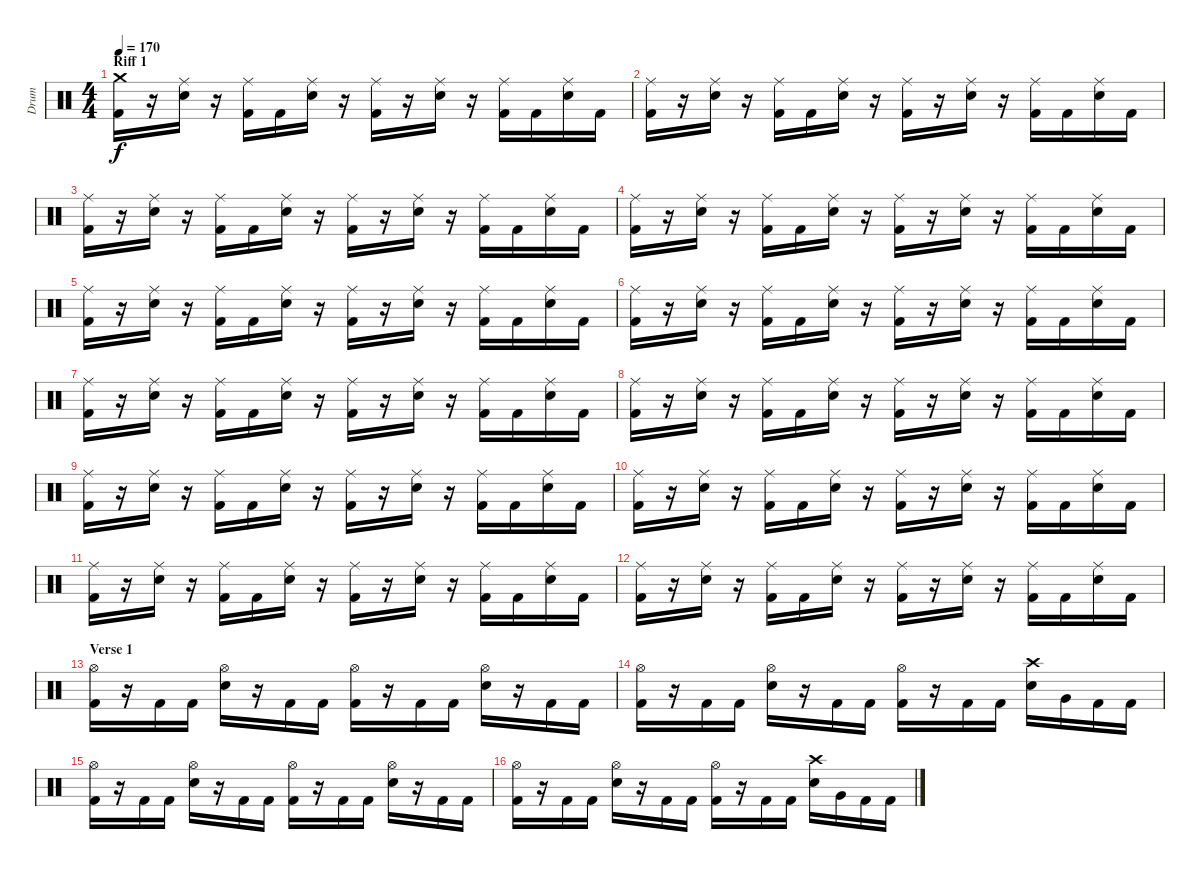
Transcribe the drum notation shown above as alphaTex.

\track ("Drum" "Drum") {instrument percussion}
\staff {score}
\articulation defaults
\ts (4 4)
\section ("" "Riff 1")
\tempo 170
\clef neutral
\ks c
("Kick (hit) 2" "Crash medium (hit)").16{dy f} r.16 ("Electric Snare (hit)" "Ride (middle)").16 r.16 ("Kick (hit) 2" "Ride (middle)").16 "Kick (hit) 2".16 ("Electric Snare (hit)" "Ride (middle)").16 r.16 ("Kick (hit) 2" "Ride (middle)").16 r.16 ("Electric Snare (hit)" "Ride (middle)").16 r.16 ("Kick (hit) 2" "Ride (middle)").16 "Kick (hit) 2".16 ("Electric Snare (hit)" "Ride (middle)").16 "Kick (hit) 2".16 |
("Kick (hit) 2" "Ride (middle)").16 r.16 ("Electric Snare (hit)" "Ride (middle)").16 r.16 ("Kick (hit) 2" "Ride (middle)").16 "Kick (hit) 2".16 ("Electric Snare (hit)" "Ride (middle)").16 r.16 ("Kick (hit) 2" "Ride (middle)").16 r.16 ("Electric Snare (hit)" "Ride (middle)").16 r.16 ("Kick (hit) 2" "Ride (middle)").16 "Kick (hit) 2".16 ("Electric Snare (hit)" "Ride (middle)").16 "Kick (hit) 2".16 |
("Kick (hit) 2" "Ride (middle)").16 r.16 ("Electric Snare (hit)" "Ride (middle)").16 r.16 ("Kick (hit) 2" "Ride (middle)").16 "Kick (hit) 2".16 ("Electric Snare (hit)" "Ride (middle)").16 r.16 ("Kick (hit) 2" "Ride (middle)").16 r.16 ("Electric Snare (hit)" "Ride (middle)").16 r.16 ("Kick (hit) 2" "Ride (middle)").16 "Kick (hit) 2".16 ("Electric Snare (hit)" "Ride (middle)").16 "Kick (hit) 2".16 |
("Kick (hit) 2" "Ride (middle)").16 r.16 ("Electric Snare (hit)" "Ride (middle)").16 r.16 ("Kick (hit) 2" "Ride (middle)").16 "Kick (hit) 2".16 ("Electric Snare (hit)" "Ride (middle)").16 r.16 ("Kick (hit) 2" "Ride (middle)").16 r.16 ("Electric Snare (hit)" "Ride (middle)").16 r.16 ("Kick (hit) 2" "Ride (middle)").16 "Kick (hit) 2".16 ("Electric Snare (hit)" "Ride (middle)").16 "Kick (hit) 2".16 |
("Kick (hit) 2" "Ride (middle)").16 r.16 ("Electric Snare (hit)" "Ride (middle)").16 r.16 ("Kick (hit) 2" "Ride (middle)").16 "Kick (hit) 2".16 ("Electric Snare (hit)" "Ride (middle)").16 r.16 ("Kick (hit) 2" "Ride (middle)").16 r.16 ("Electric Snare (hit)" "Ride (middle)").16 r.16 ("Kick (hit) 2" "Ride (middle)").16 "Kick (hit) 2".16 ("Electric Snare (hit)" "Ride (middle)").16 "Kick (hit) 2".16 |
("Kick (hit) 2" "Ride (middle)").16 r.16 ("Electric Snare (hit)" "Ride (middle)").16 r.16 ("Kick (hit) 2" "Ride (middle)").16 "Kick (hit) 2".16 ("Electric Snare (hit)" "Ride (middle)").16 r.16 ("Kick (hit) 2" "Ride (middle)").16 r.16 ("Electric Snare (hit)" "Ride (middle)").16 r.16 ("Kick (hit) 2" "Ride (middle)").16 "Kick (hit) 2".16 ("Electric Snare (hit)" "Ride (middle)").16 "Kick (hit) 2".16 |
("Kick (hit) 2" "Ride (middle)").16 r.16 ("Electric Snare (hit)" "Ride (middle)").16 r.16 ("Kick (hit) 2" "Ride (middle)").16 "Kick (hit) 2".16 ("Electric Snare (hit)" "Ride (middle)").16 r.16 ("Kick (hit) 2" "Ride (middle)").16 r.16 ("Electric Snare (hit)" "Ride (middle)").16 r.16 ("Kick (hit) 2" "Ride (middle)").16 "Kick (hit) 2".16 ("Electric Snare (hit)" "Ride (middle)").16 "Kick (hit) 2".16 |
("Kick (hit) 2" "Ride (middle)").16 r.16 ("Electric Snare (hit)" "Ride (middle)").16 r.16 ("Kick (hit) 2" "Ride (middle)").16 "Kick (hit) 2".16 ("Electric Snare (hit)" "Ride (middle)").16 r.16 ("Kick (hit) 2" "Ride (middle)").16 r.16 ("Electric Snare (hit)" "Ride (middle)").16 r.16 ("Kick (hit) 2" "Ride (middle)").16 "Kick (hit) 2".16 ("Electric Snare (hit)" "Ride (middle)").16 "Kick (hit) 2".16 |
("Kick (hit) 2" "Ride (middle)").16 r.16 ("Electric Snare (hit)" "Ride (middle)").16 r.16 ("Kick (hit) 2" "Ride (middle)").16 "Kick (hit) 2".16 ("Electric Snare (hit)" "Ride (middle)").16 r.16 ("Kick (hit) 2" "Ride (middle)").16 r.16 ("Electric Snare (hit)" "Ride (middle)").16 r.16 ("Kick (hit) 2" "Ride (middle)").16 "Kick (hit) 2".16 ("Electric Snare (hit)" "Ride (middle)").16 "Kick (hit) 2".16 |
("Kick (hit) 2" "Ride (middle)").16 r.16 ("Electric Snare (hit)" "Ride (middle)").16 r.16 ("Kick (hit) 2" "Ride (middle)").16 "Kick (hit) 2".16 ("Electric Snare (hit)" "Ride (middle)").16 r.16 ("Kick (hit) 2" "Ride (middle)").16 r.16 ("Electric Snare (hit)" "Ride (middle)").16 r.16 ("Kick (hit) 2" "Ride (middle)").16 "Kick (hit) 2".16 ("Electric Snare (hit)" "Ride (middle)").16 "Kick (hit) 2".16 |
("Kick (hit) 2" "Ride (middle)").16 r.16 ("Electric Snare (hit)" "Ride (middle)").16 r.16 ("Kick (hit) 2" "Ride (middle)").16 "Kick (hit) 2".16 ("Electric Snare (hit)" "Ride (middle)").16 r.16 ("Kick (hit) 2" "Ride (middle)").16 r.16 ("Electric Snare (hit)" "Ride (middle)").16 r.16 ("Kick (hit) 2" "Ride (middle)").16 "Kick (hit) 2".16 ("Electric Snare (hit)" "Ride (middle)").16 "Kick (hit) 2".16 |
("Kick (hit) 2" "Ride (middle)").16 r.16 ("Electric Snare (hit)" "Ride (middle)").16 r.16 ("Kick (hit) 2" "Ride (middle)").16 "Kick (hit) 2".16 ("Electric Snare (hit)" "Ride (middle)").16 r.16 ("Kick (hit) 2" "Ride (middle)").16 r.16 ("Electric Snare (hit)" "Ride (middle)").16 r.16 ("Kick (hit) 2" "Ride (middle)").16 "Kick (hit) 2".16 ("Electric Snare (hit)" "Ride (middle)").16 "Kick (hit) 2".16 |
\section ("" "Verse 1")
("Kick (hit) 2" "Hi-Hat (open)").16 r.16 "Kick (hit) 2".16 "Kick (hit) 2".16 ("Electric Snare (hit)" "Hi-Hat (open)").16 r.16 "Kick (hit) 2".16 "Kick (hit) 2".16 ("Kick (hit) 2" "Hi-Hat (open)").16 r.16 "Kick (hit) 2".16 "Kick (hit) 2".16 ("Electric Snare (hit)" "Hi-Hat (open)").16 r.16 "Kick (hit) 2".16 "Kick (hit) 2".16 |
("Kick (hit) 2" "Hi-Hat (open)").16 r.16 "Kick (hit) 2".16 "Kick (hit) 2".16 ("Electric Snare (hit)" "Hi-Hat (open)").16 r.16 "Kick (hit) 2".16 "Kick (hit) 2".16 ("Kick (hit) 2" "Hi-Hat (open)").16 r.16 "Kick (hit) 2".16 "Kick (hit) 2".16 ("Electric Snare (hit)" "Crash high (hit)").16 "Very Low Tom (hit)".16 "Kick (hit) 2".16 "Kick (hit) 2".16 |
("Kick (hit) 2" "Hi-Hat (open)").16 r.16 "Kick (hit) 2".16 "Kick (hit) 2".16 ("Electric Snare (hit)" "Hi-Hat (open)").16 r.16 "Kick (hit) 2".16 "Kick (hit) 2".16 ("Kick (hit) 2" "Hi-Hat (open)").16 r.16 "Kick (hit) 2".16 "Kick (hit) 2".16 ("Electric Snare (hit)" "Hi-Hat (open)").16 r.16 "Kick (hit) 2".16 "Kick (hit) 2".16 |
("Kick (hit) 2" "Hi-Hat (open)").16 r.16 "Kick (hit) 2".16 "Kick (hit) 2".16 ("Electric Snare (hit)" "Hi-Hat (open)").16 r.16 "Kick (hit) 2".16 "Kick (hit) 2".16 ("Kick (hit) 2" "Hi-Hat (open)").16 r.16 "Kick (hit) 2".16 "Kick (hit) 2".16 ("Electric Snare (hit)" "Crash high (hit)").16 "Very Low Tom (hit)".16 "Kick (hit) 2".16 "Kick (hit) 2".16
